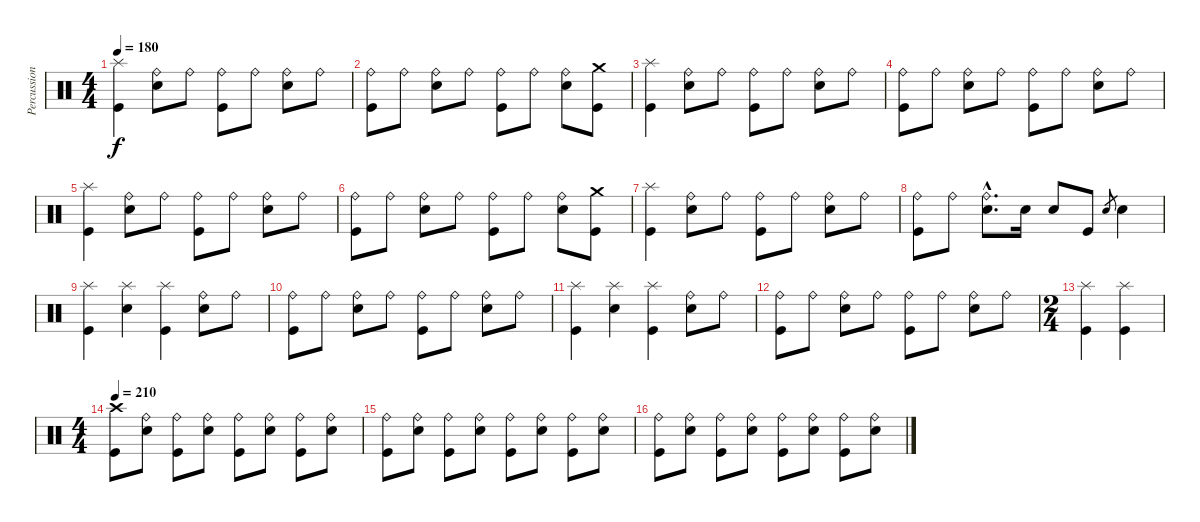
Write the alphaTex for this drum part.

\track ("Percussions" "Percussion") {instrument percussion}
\staff {score}
\articulation defaults
\ts (4 4)
\tempo 180
\clef neutral
\ks c
("Kick (hit)" "Splash (hit)").4{dy f} ("Electric Snare (hit)" "Ride (bell)").8 "Ride (bell)".8 ("Kick (hit)" "Ride (bell)").8 "Ride (bell)".8 ("Electric Snare (hit)" "Ride (bell)").8 "Ride (bell)".8 |
("Kick (hit)" "Ride (bell)").8 "Ride (bell)".8 ("Electric Snare (hit)" "Ride (bell)").8 "Ride (bell)".8 ("Kick (hit)" "Ride (bell)").8 "Ride (bell)".8 ("Electric Snare (hit)" "Ride (bell)").8 ("Kick (hit)" "Crash medium (hit)").8 |
("Kick (hit)" "Splash (hit)").4 ("Electric Snare (hit)" "Ride (bell)").8 "Ride (bell)".8 ("Kick (hit)" "Ride (bell)").8 "Ride (bell)".8 ("Electric Snare (hit)" "Ride (bell)").8 "Ride (bell)".8 |
("Kick (hit)" "Ride (bell)").8 "Ride (bell)".8 ("Electric Snare (hit)" "Ride (bell)").8 "Ride (bell)".8 ("Kick (hit)" "Ride (bell)").8 "Ride (bell)".8 ("Electric Snare (hit)" "Ride (bell)").8 "Ride (bell)".8 |
("Kick (hit)" "Splash (hit)").4 ("Electric Snare (hit)" "Ride (bell)").8 "Ride (bell)".8 ("Kick (hit)" "Ride (bell)").8 "Ride (bell)".8 ("Electric Snare (hit)" "Ride (bell)").8 "Ride (bell)".8 |
("Kick (hit)" "Ride (bell)").8 "Ride (bell)".8 ("Electric Snare (hit)" "Ride (bell)").8 "Ride (bell)".8 ("Kick (hit)" "Ride (bell)").8 "Ride (bell)".8 ("Electric Snare (hit)" "Ride (bell)").8 ("Kick (hit)" "Crash medium (hit)").8 |
("Kick (hit)" "Splash (hit)").4 ("Electric Snare (hit)" "Ride (bell)").8 "Ride (bell)".8 ("Kick (hit)" "Ride (bell)").8 "Ride (bell)".8 ("Electric Snare (hit)" "Ride (bell)").8 "Ride (bell)".8 |
("Kick (hit)" "Ride (bell)").8 "Ride (bell)".8 ("Electric Snare (hit)"{hac} "Ride (bell)"{hac}).8{d} "Electric Snare (hit)".16 "Electric Snare (hit)".8 "Kick (hit)".8 "Electric Snare (hit)".8{gr} "Electric Snare (hit)".4 |
("Kick (hit)" "Splash (hit)").4 ("Electric Snare (hit)" "Splash (hit)").4 ("Kick (hit)" "Splash (hit)").4 ("Electric Snare (hit)" "Ride (bell)").8 "Ride (bell)".8 |
("Kick (hit)" "Ride (bell)").8 "Ride (bell)".8 ("Electric Snare (hit)" "Ride (bell)").8 "Ride (bell)".8 ("Kick (hit)" "Ride (bell)").8 "Ride (bell)".8 ("Electric Snare (hit)" "Ride (bell)").8 "Ride (bell)".8 |
("Kick (hit)" "Splash (hit)").4 ("Electric Snare (hit)" "Splash (hit)").4 ("Kick (hit)" "Splash (hit)").4 ("Electric Snare (hit)" "Ride (bell)").8 "Ride (bell)".8 |
("Kick (hit)" "Ride (bell)").8 "Ride (bell)".8 ("Electric Snare (hit)" "Ride (bell)").8 "Ride (bell)".8 ("Kick (hit)" "Ride (bell)").8 "Ride (bell)".8 ("Electric Snare (hit)" "Ride (bell)").8 "Ride (bell)".8 |
\ts (2 4)
("Kick (hit)" "Splash (hit)").4 ("Kick (hit)" "Splash (hit)").4 |
\ts (4 4)
\tempo 210
("Kick (hit)" "Crash high (hit)").8 ("Electric Snare (hit)" "Ride (bell)").8 ("Kick (hit)" "Ride (bell)").8 ("Electric Snare (hit)" "Ride (bell)").8 ("Kick (hit)" "Ride (bell)").8 ("Electric Snare (hit)" "Ride (bell)").8 ("Kick (hit)" "Ride (bell)").8 ("Electric Snare (hit)" "Ride (bell)").8 |
("Kick (hit)" "Ride (bell)").8 ("Electric Snare (hit)" "Ride (bell)").8 ("Kick (hit)" "Ride (bell)").8 ("Electric Snare (hit)" "Ride (bell)").8 ("Kick (hit)" "Ride (bell)").8 ("Electric Snare (hit)" "Ride (bell)").8 ("Kick (hit)" "Ride (bell)").8 ("Electric Snare (hit)" "Ride (bell)").8 |
("Kick (hit)" "Ride (bell)").8 ("Electric Snare (hit)" "Ride (bell)").8 ("Kick (hit)" "Ride (bell)").8 ("Electric Snare (hit)" "Ride (bell)").8 ("Kick (hit)" "Ride (bell)").8 ("Electric Snare (hit)" "Ride (bell)").8 ("Kick (hit)" "Ride (bell)").8 ("Electric Snare (hit)" "Ride (bell)").8
